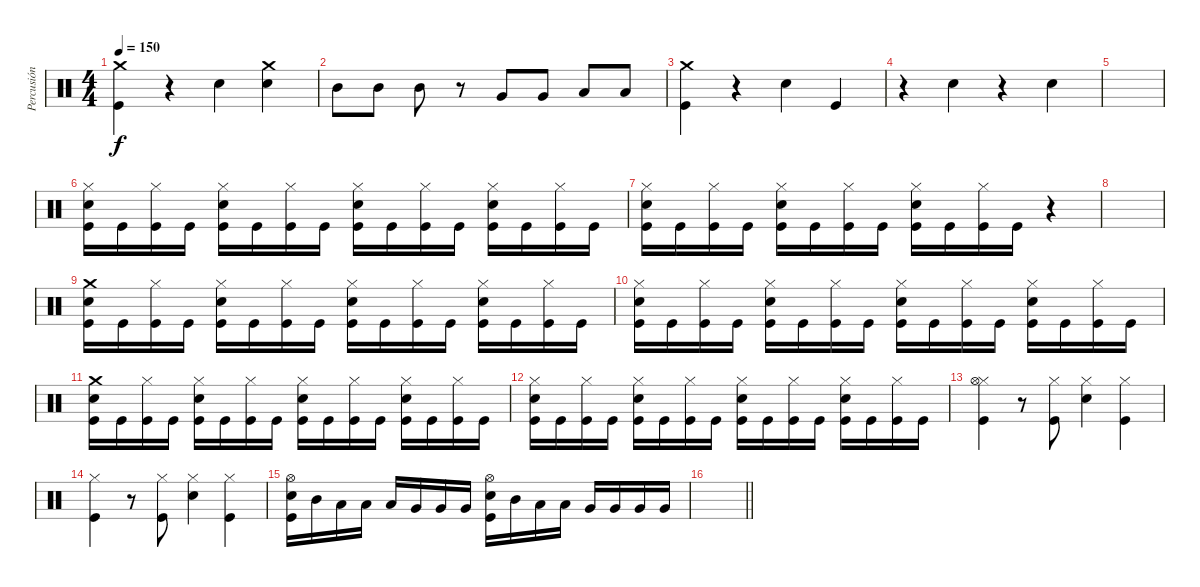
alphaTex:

\track ("Percusión" "Percusión") {instrument percussion}
\staff {score}
\articulation defaults
\ts (4 4)
\tempo 150
\clef neutral
\ks c
("Crash medium (hit)" "Kick (hit)").4{dy f} r.4 "Snare (hit) 2".4 ("Crash medium (hit)" "Snare (hit) 2").4 |
"Mid Tom (hit)".8 "Mid Tom (hit)".8 "Mid Tom (hit)".8 r.8 "Very Low Tom (hit)".8 "Very Low Tom (hit)".8 "Low Floor Tom (hit)".8 "Low Floor Tom (hit)".8 |
("Crash medium (hit)" "Kick (hit)").4 r.4 "Snare (hit) 2".4 "Kick (hit)".4 |
r.4 "Snare (hit) 2".4 r.4 "Snare (hit) 2".4 |
|
("Hi-Hat (closed)" "Snare (hit) 2" "Kick (hit)").16 "Kick (hit)".16 ("Hi-Hat (closed)" "Kick (hit)").16 "Kick (hit)".16 ("Hi-Hat (closed)" "Snare (hit) 2" "Kick (hit)").16 "Kick (hit)".16 ("Hi-Hat (closed)" "Kick (hit)").16 "Kick (hit)".16 ("Hi-Hat (closed)" "Snare (hit) 2" "Kick (hit)").16 "Kick (hit)".16 ("Hi-Hat (closed)" "Kick (hit)").16 "Kick (hit)".16 ("Hi-Hat (closed)" "Snare (hit) 2" "Kick (hit)").16 "Kick (hit)".16 ("Hi-Hat (closed)" "Kick (hit)").16 "Kick (hit)".16 |
("Hi-Hat (closed)" "Snare (hit) 2" "Kick (hit)").16 "Kick (hit)".16 ("Hi-Hat (closed)" "Kick (hit)").16 "Kick (hit)".16 ("Hi-Hat (closed)" "Snare (hit) 2" "Kick (hit)").16 "Kick (hit)".16 ("Hi-Hat (closed)" "Kick (hit)").16 "Kick (hit)".16 ("Hi-Hat (closed)" "Snare (hit) 2" "Kick (hit)").16 "Kick (hit)".16 ("Hi-Hat (closed)" "Kick (hit)").16 "Kick (hit)".16 r.4 |
|
("Crash medium (hit)" "Snare (hit) 2" "Kick (hit)").16 "Kick (hit)".16 ("Hi-Hat (closed)" "Kick (hit)").16 "Kick (hit)".16 ("Hi-Hat (closed)" "Snare (hit) 2" "Kick (hit)").16 "Kick (hit)".16 ("Hi-Hat (closed)" "Kick (hit)").16 "Kick (hit)".16 ("Hi-Hat (closed)" "Snare (hit) 2" "Kick (hit)").16 "Kick (hit)".16 ("Hi-Hat (closed)" "Kick (hit)").16 "Kick (hit)".16 ("Hi-Hat (closed)" "Snare (hit) 2" "Kick (hit)").16 "Kick (hit)".16 ("Hi-Hat (closed)" "Kick (hit)").16 "Kick (hit)".16 |
("Hi-Hat (closed)" "Snare (hit) 2" "Kick (hit)").16 "Kick (hit)".16 ("Hi-Hat (closed)" "Kick (hit)").16 "Kick (hit)".16 ("Hi-Hat (closed)" "Snare (hit) 2" "Kick (hit)").16 "Kick (hit)".16 ("Hi-Hat (closed)" "Kick (hit)").16 "Kick (hit)".16 ("Hi-Hat (closed)" "Snare (hit) 2" "Kick (hit)").16 "Kick (hit)".16 ("Hi-Hat (closed)" "Kick (hit)").16 "Kick (hit)".16 ("Hi-Hat (closed)" "Snare (hit) 2" "Kick (hit)").16 "Kick (hit)".16 ("Hi-Hat (closed)" "Kick (hit)").16 "Kick (hit)".16 |
("Crash medium (hit)" "Snare (hit) 2" "Kick (hit)").16 "Kick (hit)".16 ("Hi-Hat (closed)" "Kick (hit)").16 "Kick (hit)".16 ("Hi-Hat (closed)" "Snare (hit) 2" "Kick (hit)").16 "Kick (hit)".16 ("Hi-Hat (closed)" "Kick (hit)").16 "Kick (hit)".16 ("Hi-Hat (closed)" "Snare (hit) 2" "Kick (hit)").16 "Kick (hit)".16 ("Hi-Hat (closed)" "Kick (hit)").16 "Kick (hit)".16 ("Hi-Hat (closed)" "Snare (hit) 2" "Kick (hit)").16 "Kick (hit)".16 ("Hi-Hat (closed)" "Kick (hit)").16 "Kick (hit)".16 |
("Hi-Hat (closed)" "Snare (hit) 2" "Kick (hit)").16 "Kick (hit)".16 ("Hi-Hat (closed)" "Kick (hit)").16 "Kick (hit)".16 ("Hi-Hat (closed)" "Snare (hit) 2" "Kick (hit)").16 "Kick (hit)".16 ("Hi-Hat (closed)" "Kick (hit)").16 "Kick (hit)".16 ("Hi-Hat (closed)" "Snare (hit) 2" "Kick (hit)").16 "Kick (hit)".16 ("Hi-Hat (closed)" "Kick (hit)").16 "Kick (hit)".16 ("Hi-Hat (closed)" "Snare (hit) 2" "Kick (hit)").16 "Kick (hit)".16 ("Hi-Hat (closed)" "Kick (hit)").16 "Kick (hit)".16 |
("Hi-Hat (closed)" "Hi-Hat (open)" "Kick (hit)").4 r.8 ("Hi-Hat (closed)" "Kick (hit)").8 ("Hi-Hat (closed)" "Snare (hit) 2").4 ("Hi-Hat (closed)" "Kick (hit)").4 |
("Hi-Hat (closed)" "Kick (hit)").4 r.8 ("Hi-Hat (closed)" "Kick (hit)").8 ("Hi-Hat (closed)" "Snare (hit) 2").4 ("Hi-Hat (closed)" "Kick (hit)").4 |
("Hi-Hat (open)" "Snare (hit) 2" "Kick (hit)").16 "Mid Tom (hit)".16 "Low Tom (hit)".16 "Low Tom (hit)".16 "Low Tom (hit)".16 "Very Low Tom (hit)".16 "Very Low Tom (hit)".16 "Very Low Tom (hit)".16 ("Hi-Hat (open)" "Snare (hit) 2" "Kick (hit)").16 "Mid Tom (hit)".16 "Low Tom (hit)".16 "Low Tom (hit)".16 "Very Low Tom (hit)".16 "Very Low Tom (hit)".16 "Very Low Tom (hit)".16 "Very Low Tom (hit)".16 |
\barLineRight lightlight
